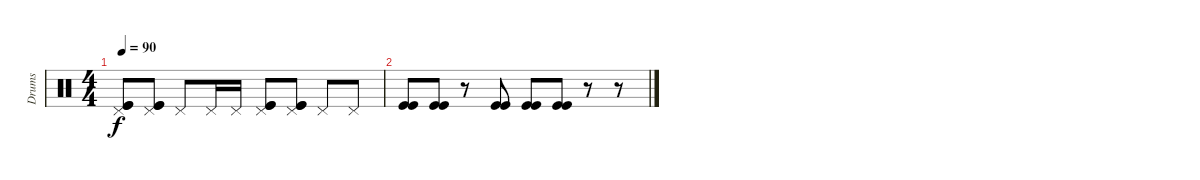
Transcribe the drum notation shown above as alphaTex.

\track ("Drums" "Drums") {instrument percussion}
\staff {score}
\articulation defaults
\ts (4 4)
\tempo 90
\clef neutral
\ks c
("Kick (hit)" "Kick (hit)" "Pedal Hi-Hat (hit)").8{dy f} ("Kick (hit)" "Kick (hit)" "Pedal Hi-Hat (hit)").8 "Pedal Hi-Hat (hit)".8 "Pedal Hi-Hat (hit)".16 "Pedal Hi-Hat (hit)".16 ("Kick (hit)" "Kick (hit)" "Pedal Hi-Hat (hit)").8 ("Kick (hit)" "Kick (hit)" "Pedal Hi-Hat (hit)").8 "Pedal Hi-Hat (hit)".8 "Pedal Hi-Hat (hit)".8 |
("Kick (hit)" "Kick (hit)").8 ("Kick (hit)" "Kick (hit)").8 r.8 ("Kick (hit)" "Kick (hit)").8 ("Kick (hit)" "Kick (hit)").8 ("Kick (hit)" "Kick (hit)").8 r.8 r.8
